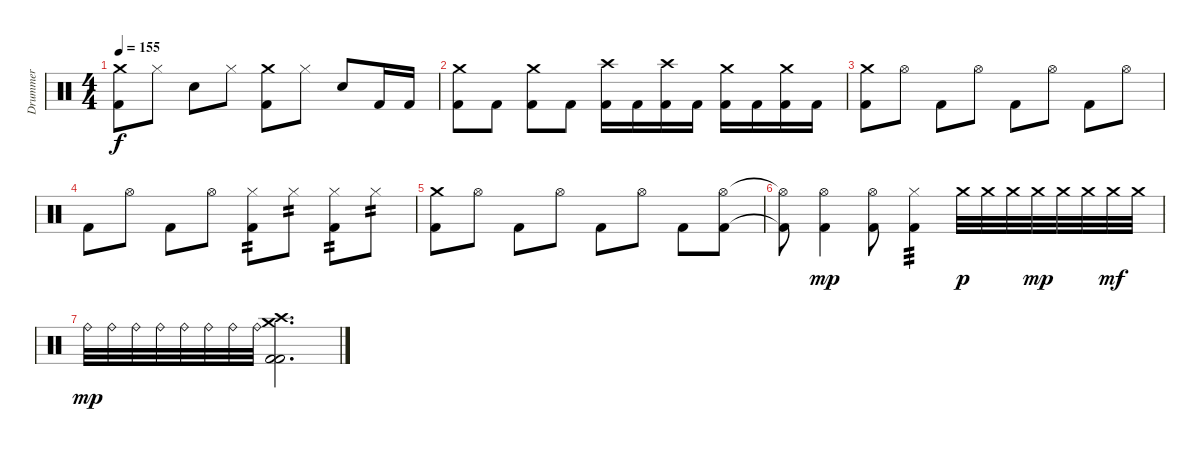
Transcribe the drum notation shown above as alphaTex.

\track ("Drummer" "Drummer") {instrument percussion}
\staff {score}
\articulation defaults
\ts (4 4)
\tempo 155
\clef neutral
\ks c
("Crash medium (hit)" "Kick (hit) 2").8{dy f} "Hi-Hat (closed)".8 "Electric Snare (hit)".8 "Hi-Hat (closed)".8 ("Crash medium (hit)" "Kick (hit) 2").8 "Hi-Hat (closed)".8 "Electric Snare (hit)".8 "Kick (hit) 2".16 "Kick (hit) 2".16 |
("Crash medium (hit)" "Kick (hit) 2").8 "Kick (hit) 2".8 ("Crash medium (hit)" "Kick (hit) 2").8 "Kick (hit) 2".8 ("Crash high (hit)" "Kick (hit) 2").16 "Kick (hit) 2".16 ("Crash high (hit)" "Kick (hit) 2").16 "Kick (hit) 2".16 ("Crash medium (hit)" "Kick (hit) 2").16 "Kick (hit) 2".16 ("Crash medium (hit)" "Kick (hit) 2").16 "Kick (hit) 2".16 |
("Crash medium (hit)" "Kick (hit) 2").8 "Hi-Hat (open)".8 "Kick (hit) 2".8 "Hi-Hat (open)".8 "Kick (hit) 2".8 "Hi-Hat (open)".8 "Kick (hit) 2".8 "Hi-Hat (open)".8 |
"Kick (hit) 2".8 "Hi-Hat (open)".8 "Kick (hit) 2".8 "Hi-Hat (open)".8 ("Hi-Hat (closed)" "Kick (hit) 2").8{tp 2} "Hi-Hat (closed)".8{tp 2} ("Hi-Hat (closed)" "Kick (hit) 2").8{tp 2} "Hi-Hat (closed)".8{tp 2} |
("Crash medium (hit)" "Kick (hit) 2").8 "Hi-Hat (open)".8 "Kick (hit) 2".8 "Hi-Hat (open)".8 "Kick (hit) 2".8 "Hi-Hat (open)".8 "Kick (hit) 2".8 ("Hi-Hat (open)" "Kick (hit) 2").8 |
("Hi-Hat (open)"{t} "Kick (hit) 2"{t}).8 ("Hi-Hat (open)" "Kick (hit) 2").4{dy mp} ("Hi-Hat (open)" "Kick (hit) 2").8 ("Hi-Hat (closed)" "Kick (hit) 2").4{tp 3} "Crash medium (hit)".32{dy p} "Crash medium (hit)".32 "Crash medium (hit)".32 "Crash medium (hit)".32{dy mp} "Crash medium (hit)".32 "Crash medium (hit)".32 "Crash medium (hit)".32{dy mf} "Crash medium (hit)".32 |
"Ride (bell)".32{dy mp} "Ride (bell)".32 "Ride (bell)".32 "Ride (bell)".32 "Ride (bell)".32 "Ride (bell)".32 "Ride (bell)".32 "Ride (bell)".32 ("Crash high (hit)" "Crash medium (hit)" "Kick (hit) 2" "Kick (hit) 2").2{d}
